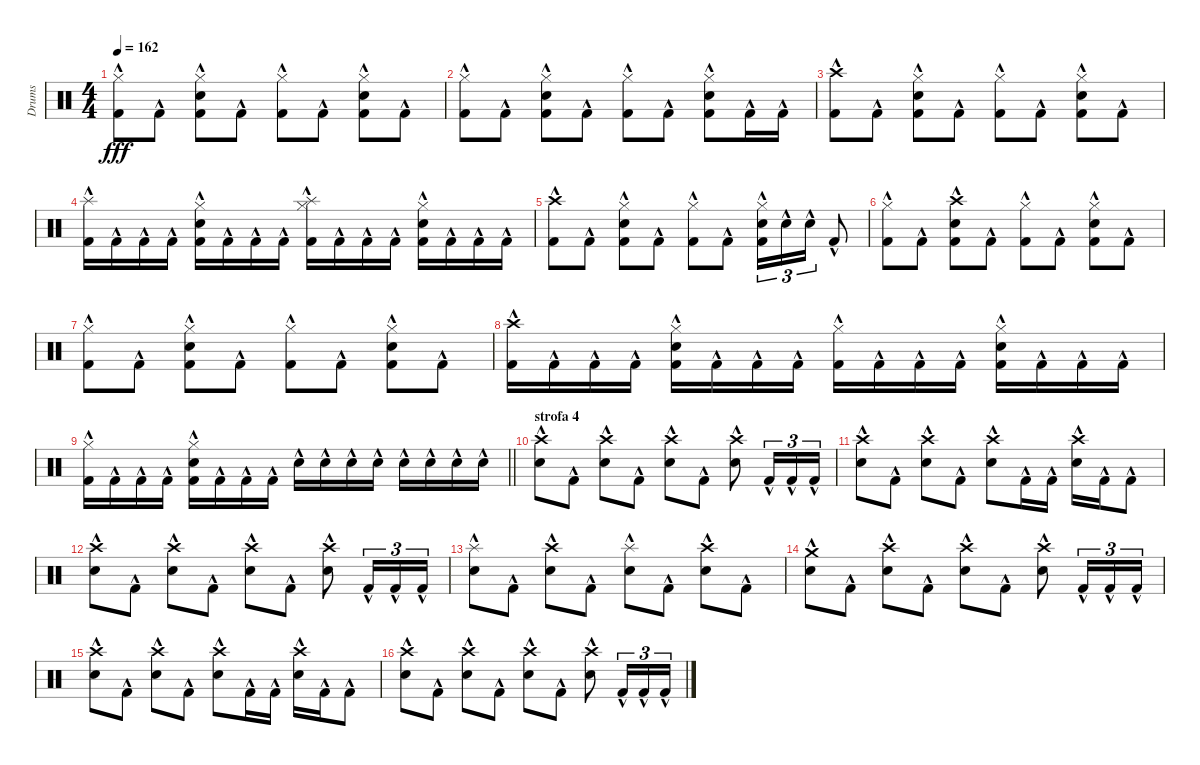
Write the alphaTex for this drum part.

\track ("Drums" "Drums") {instrument percussion}
\staff {score}
\articulation defaults
\ts (4 4)
\tempo 162
\clef neutral
\ks c
("Hi-Hat (closed)"{hac} "Kick (hit) 2"{hac}).8{dy fff} "Kick (hit) 2"{hac}.8 ("Hi-Hat (closed)"{hac} "Kick (hit) 2"{hac} "Electric Snare (hit)"{hac}).8 "Kick (hit) 2"{hac}.8 ("Hi-Hat (closed)"{hac} "Kick (hit) 2"{hac}).8 "Kick (hit) 2"{hac}.8 ("Hi-Hat (closed)"{hac} "Kick (hit) 2"{hac} "Electric Snare (hit)"{hac}).8 "Kick (hit) 2"{hac}.8 |
("Hi-Hat (closed)"{hac} "Kick (hit) 2"{hac}).8 "Kick (hit) 2"{hac}.8 ("Hi-Hat (closed)"{hac} "Kick (hit) 2"{hac} "Electric Snare (hit)"{hac}).8 "Kick (hit) 2"{hac}.8 ("Hi-Hat (closed)"{hac} "Kick (hit) 2"{hac}).8 "Kick (hit) 2"{hac}.8 ("Hi-Hat (closed)"{hac} "Kick (hit) 2"{hac} "Electric Snare (hit)"{hac}).8 "Kick (hit) 2"{hac}.16 "Kick (hit) 2"{hac}.16 |
("Kick (hit) 2"{hac} "Crash high (hit)"{hac}).8 "Kick (hit) 2"{hac}.8 ("Hi-Hat (closed)"{hac} "Kick (hit) 2"{hac} "Electric Snare (hit)"{hac}).8 "Kick (hit) 2"{hac}.8 ("Hi-Hat (closed)"{hac} "Kick (hit) 2"{hac}).8 "Kick (hit) 2"{hac}.8 ("Hi-Hat (closed)"{hac} "Kick (hit) 2"{hac} "Electric Snare (hit)"{hac}).8 "Kick (hit) 2"{hac}.8 |
("Kick (hit) 2"{hac} "Splash (hit)"{hac}).16 "Kick (hit) 2"{hac}.16 "Kick (hit) 2"{hac}.16 "Kick (hit) 2"{hac}.16 ("Hi-Hat (closed)"{hac} "Kick (hit) 2"{hac} "Electric Snare (hit)"{hac}).16 "Kick (hit) 2"{hac}.16 "Kick (hit) 2"{hac}.16 "Kick (hit) 2"{hac}.16 ("Hi-Hat (closed)"{hac} "Kick (hit) 2"{hac} "Splash (hit)"{hac}).16 "Kick (hit) 2"{hac}.16 "Kick (hit) 2"{hac}.16 "Kick (hit) 2"{hac}.16 ("Hi-Hat (closed)"{hac} "Kick (hit) 2"{hac} "Electric Snare (hit)"{hac}).16 "Kick (hit) 2"{hac}.16 "Kick (hit) 2"{hac}.16 "Kick (hit) 2"{hac}.16 |
("Kick (hit) 2"{hac} "Crash high (hit)"{hac}).8 "Kick (hit) 2"{hac}.8 ("Hi-Hat (closed)"{hac} "Kick (hit) 2"{hac} "Electric Snare (hit)"{hac}).8 "Kick (hit) 2"{hac}.8 ("Hi-Hat (closed)"{hac} "Kick (hit) 2"{hac}).8 "Kick (hit) 2"{hac}.8 ("Hi-Hat (closed)"{hac} "Kick (hit) 2"{hac} "Electric Snare (hit)"{hac}).16{tu (3 2)} "Electric Snare (hit)"{hac}.16{tu (3 2)} "Electric Snare (hit)"{hac}.16{tu (3 2)} "Kick (hit) 2"{hac}.8 |
("Hi-Hat (closed)"{hac} "Kick (hit) 2"{hac}).8 "Kick (hit) 2"{hac}.8 ("Kick (hit) 2"{hac} "Electric Snare (hit)"{hac} "Crash high (hit)"{hac}).8 "Kick (hit) 2"{hac}.8 ("Hi-Hat (closed)"{hac} "Kick (hit) 2"{hac}).8 "Kick (hit) 2"{hac}.8 ("Hi-Hat (closed)"{hac} "Kick (hit) 2"{hac} "Electric Snare (hit)"{hac}).8 "Kick (hit) 2"{hac}.8 |
("Hi-Hat (closed)"{hac} "Kick (hit) 2"{hac}).8 "Kick (hit) 2"{hac}.8 ("Hi-Hat (closed)"{hac} "Kick (hit) 2"{hac} "Electric Snare (hit)"{hac}).8 "Kick (hit) 2"{hac}.8 ("Hi-Hat (closed)"{hac} "Kick (hit) 2"{hac}).8 "Kick (hit) 2"{hac}.8 ("Hi-Hat (closed)"{hac} "Kick (hit) 2"{hac} "Electric Snare (hit)"{hac}).8 "Kick (hit) 2"{hac}.8 |
("Kick (hit) 2"{hac} "Crash high (hit)"{hac}).16 "Kick (hit) 2"{hac}.16 "Kick (hit) 2"{hac}.16 "Kick (hit) 2"{hac}.16 ("Hi-Hat (closed)"{hac} "Kick (hit) 2"{hac} "Electric Snare (hit)"{hac}).16 "Kick (hit) 2"{hac}.16 "Kick (hit) 2"{hac}.16 "Kick (hit) 2"{hac}.16 ("Hi-Hat (closed)"{hac} "Kick (hit) 2"{hac}).16 "Kick (hit) 2"{hac}.16 "Kick (hit) 2"{hac}.16 "Kick (hit) 2"{hac}.16 ("Hi-Hat (closed)"{hac} "Kick (hit) 2"{hac} "Electric Snare (hit)"{hac}).16 "Kick (hit) 2"{hac}.16 "Kick (hit) 2"{hac}.16 "Kick (hit) 2"{hac}.16 |
\barLineRight lightlight
("Hi-Hat (closed)"{hac} "Kick (hit) 2"{hac}).16 "Kick (hit) 2"{hac}.16 "Kick (hit) 2"{hac}.16 "Kick (hit) 2"{hac}.16 ("Hi-Hat (closed)"{hac} "Kick (hit) 2"{hac} "Electric Snare (hit)"{hac}).16 "Kick (hit) 2"{hac}.16 "Kick (hit) 2"{hac}.16 "Kick (hit) 2"{hac}.16 "Electric Snare (hit)"{hac}.16 "Electric Snare (hit)"{hac}.16 "Electric Snare (hit)"{hac}.16 "Electric Snare (hit)"{hac}.16 "Electric Snare (hit)"{hac}.16 "Electric Snare (hit)"{hac}.16 "Electric Snare (hit)"{hac}.16 "Electric Snare (hit)"{hac}.16 |
\section ("" "strofa 4")
("Crash high (hit)"{hac} "Electric Snare (hit)"{hac}).8 "Kick (hit) 2"{hac}.8 ("Crash high (hit)"{hac} "Electric Snare (hit)"{hac}).8 "Kick (hit) 2"{hac}.8 ("Crash high (hit)"{hac} "Electric Snare (hit)"{hac}).8 "Kick (hit) 2"{hac}.8 ("Crash high (hit)"{hac} "Electric Snare (hit)"{hac}).8 "Kick (hit) 2"{hac}.16{tu (3 2)} "Kick (hit) 2"{hac}.16{tu (3 2)} "Kick (hit) 2"{hac}.16{tu (3 2)} |
("Crash high (hit)"{hac} "Electric Snare (hit)"{hac}).8 "Kick (hit) 2"{hac}.8 ("Crash high (hit)"{hac} "Electric Snare (hit)"{hac}).8 "Kick (hit) 2"{hac}.8 ("Crash high (hit)"{hac} "Electric Snare (hit)"{hac}).8 "Kick (hit) 2"{hac}.16 "Kick (hit) 2"{hac}.16 ("Crash high (hit)"{hac} "Electric Snare (hit)"{hac}).16 "Kick (hit) 2"{hac}.16 "Kick (hit) 2"{hac}.8 |
("Crash high (hit)"{hac} "Electric Snare (hit)"{hac}).8 "Kick (hit) 2"{hac}.8 ("Crash high (hit)"{hac} "Electric Snare (hit)"{hac}).8 "Kick (hit) 2"{hac}.8 ("Crash high (hit)"{hac} "Electric Snare (hit)"{hac}).8 "Kick (hit) 2"{hac}.8 ("Crash high (hit)"{hac} "Electric Snare (hit)"{hac}).8 "Kick (hit) 2"{hac}.16{tu (3 2)} "Kick (hit) 2"{hac}.16{tu (3 2)} "Kick (hit) 2"{hac}.16{tu (3 2)} |
("Electric Snare (hit)"{hac} "Splash (hit)"{hac}).8 "Kick (hit) 2"{hac}.8 ("Crash high (hit)"{hac} "Electric Snare (hit)"{hac}).8 "Kick (hit) 2"{hac}.8 ("Electric Snare (hit)"{hac} "Splash (hit)"{hac}).8 "Kick (hit) 2"{hac}.8 ("Crash high (hit)"{hac} "Electric Snare (hit)"{hac}).8 "Kick (hit) 2"{hac}.8 |
("Electric Snare (hit)"{hac} "Crash medium (hit)"{hac}).8 "Kick (hit) 2"{hac}.8 ("Crash high (hit)"{hac} "Electric Snare (hit)"{hac}).8 "Kick (hit) 2"{hac}.8 ("Crash high (hit)"{hac} "Electric Snare (hit)"{hac}).8 "Kick (hit) 2"{hac}.8 ("Crash high (hit)"{hac} "Electric Snare (hit)"{hac}).8 "Kick (hit) 2"{hac}.16{tu (3 2)} "Kick (hit) 2"{hac}.16{tu (3 2)} "Kick (hit) 2"{hac}.16{tu (3 2)} |
("Crash high (hit)"{hac} "Electric Snare (hit)"{hac}).8 "Kick (hit) 2"{hac}.8 ("Crash high (hit)"{hac} "Electric Snare (hit)"{hac}).8 "Kick (hit) 2"{hac}.8 ("Crash high (hit)"{hac} "Electric Snare (hit)"{hac}).8 "Kick (hit) 2"{hac}.16 "Kick (hit) 2"{hac}.16 ("Crash high (hit)"{hac} "Electric Snare (hit)"{hac}).16 "Kick (hit) 2"{hac}.16 "Kick (hit) 2"{hac}.8 |
("Crash high (hit)"{hac} "Electric Snare (hit)"{hac}).8 "Kick (hit) 2"{hac}.8 ("Crash high (hit)"{hac} "Electric Snare (hit)"{hac}).8 "Kick (hit) 2"{hac}.8 ("Crash high (hit)"{hac} "Electric Snare (hit)"{hac}).8 "Kick (hit) 2"{hac}.8 ("Crash high (hit)"{hac} "Electric Snare (hit)"{hac}).8 "Kick (hit) 2"{hac}.16{tu (3 2)} "Kick (hit) 2"{hac}.16{tu (3 2)} "Kick (hit) 2"{hac}.16{tu (3 2)}
